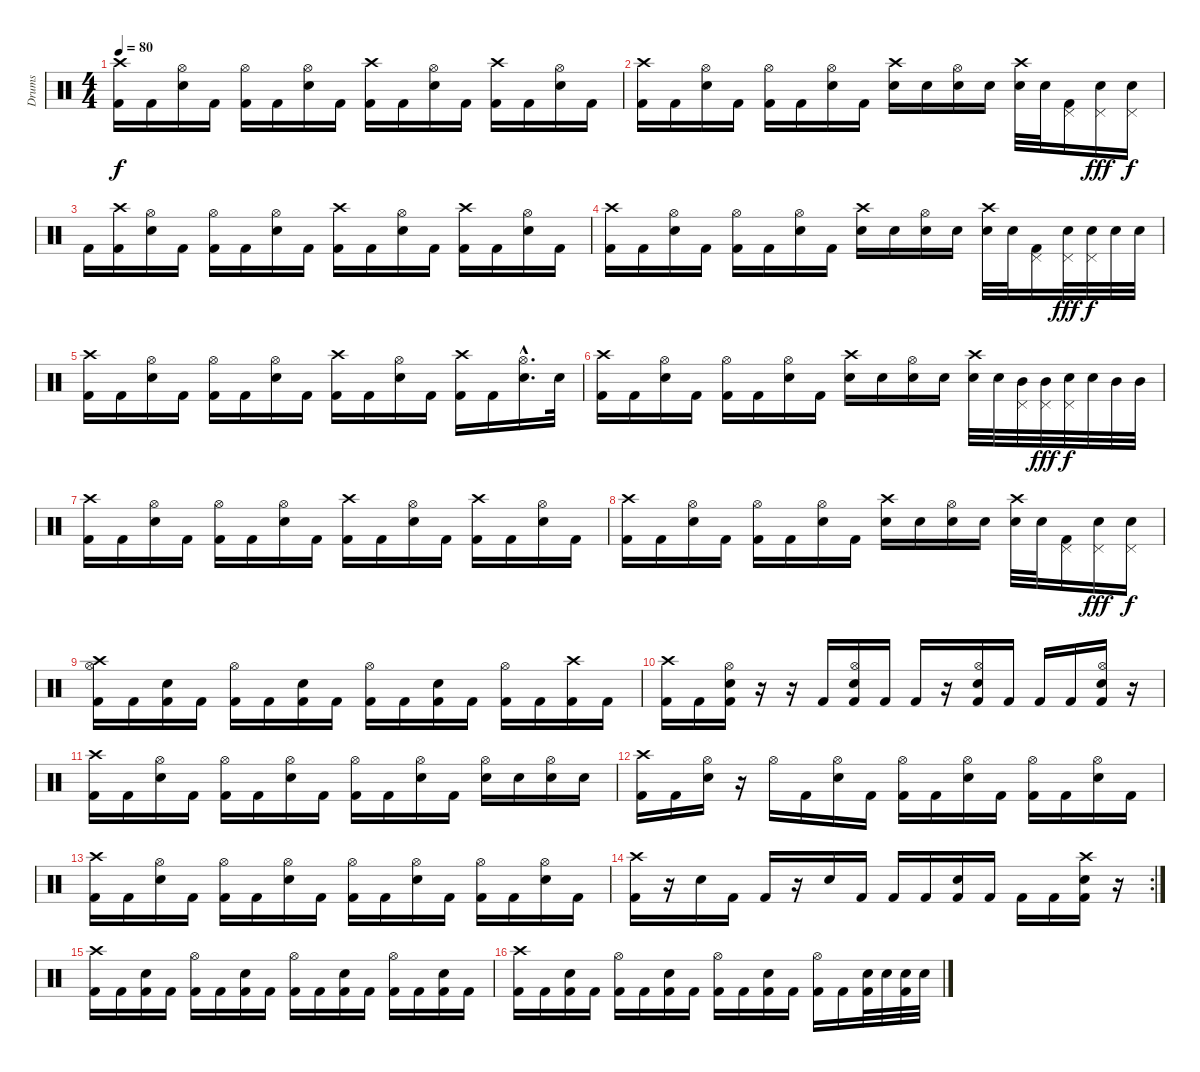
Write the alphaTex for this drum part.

\track ("Drums" "Drums") {instrument percussion}
\staff {score}
\articulation defaults
\ts (4 4)
\tempo 80
\clef neutral
\ks c
("Crash high (hit)" "Kick (hit) 2").16{dy f} "Kick (hit) 2".16 ("Hi-Hat (open)" "Electric Snare (hit)").16 "Kick (hit) 2".16 ("Hi-Hat (open)" "Kick (hit) 2").16 "Kick (hit) 2".16 ("Hi-Hat (open)" "Electric Snare (hit)").16 "Kick (hit) 2".16 ("Crash high (hit)" "Kick (hit) 2").16 "Kick (hit) 2".16 ("Hi-Hat (open)" "Electric Snare (hit)").16 "Kick (hit) 2".16 ("Crash high (hit)" "Kick (hit) 2").16 "Kick (hit) 2".16 ("Hi-Hat (open)" "Electric Snare (hit)").16 "Kick (hit) 2".16 |
("Crash high (hit)" "Kick (hit) 2").16 "Kick (hit) 2".16 ("Hi-Hat (open)" "Electric Snare (hit)").16 "Kick (hit) 2".16 ("Hi-Hat (open)" "Kick (hit) 2").16 "Kick (hit) 2".16 ("Hi-Hat (open)" "Electric Snare (hit)").16 "Kick (hit) 2".16 ("Crash high (hit)" "Electric Snare (hit)").16 "Electric Snare (hit)".16 ("Hi-Hat (open)" "Electric Snare (hit)").16 "Electric Snare (hit)".16 ("Crash high (hit)" "Electric Snare (hit)").32 "Electric Snare (hit)".32 ("Pedal Hi-Hat (hit)" "Kick (hit) 2").16 ("Pedal Hi-Hat (hit)" "Electric Snare (hit)").16{dy fff} ("Pedal Hi-Hat (hit)" "Electric Snare (hit)").16{dy f} |
"Kick (hit) 2".16 ("Crash high (hit)" "Kick (hit) 2").16 ("Hi-Hat (open)" "Electric Snare (hit)").16 "Kick (hit) 2".16 ("Hi-Hat (open)" "Kick (hit) 2").16 "Kick (hit) 2".16 ("Hi-Hat (open)" "Electric Snare (hit)").16 "Kick (hit) 2".16 ("Crash high (hit)" "Kick (hit) 2").16 "Kick (hit) 2".16 ("Hi-Hat (open)" "Electric Snare (hit)").16 "Kick (hit) 2".16 ("Crash high (hit)" "Kick (hit) 2").16 "Kick (hit) 2".16 ("Hi-Hat (open)" "Electric Snare (hit)").16 "Kick (hit) 2".16 |
("Crash high (hit)" "Kick (hit) 2").16 "Kick (hit) 2".16 ("Hi-Hat (open)" "Electric Snare (hit)").16 "Kick (hit) 2".16 ("Hi-Hat (open)" "Kick (hit) 2").16 "Kick (hit) 2".16 ("Hi-Hat (open)" "Electric Snare (hit)").16 "Kick (hit) 2".16 ("Crash high (hit)" "Electric Snare (hit)").16 "Electric Snare (hit)".16 ("Hi-Hat (open)" "Electric Snare (hit)").16 "Electric Snare (hit)".16 ("Crash high (hit)" "Electric Snare (hit)").32 "Electric Snare (hit)".32 ("Pedal Hi-Hat (hit)" "Kick (hit) 2").16 ("Pedal Hi-Hat (hit)" "Electric Snare (hit)").32{dy fff} ("Pedal Hi-Hat (hit)" "Electric Snare (hit)").32{dy f} "Electric Snare (hit)".32 "Electric Snare (hit)".32 |
("Crash high (hit)" "Kick (hit) 2").16 "Kick (hit) 2".16 ("Hi-Hat (open)" "Electric Snare (hit)").16 "Kick (hit) 2".16 ("Hi-Hat (open)" "Kick (hit) 2").16 "Kick (hit) 2".16 ("Hi-Hat (open)" "Electric Snare (hit)").16 "Kick (hit) 2".16 ("Crash high (hit)" "Kick (hit) 2").16 "Kick (hit) 2".16 ("Hi-Hat (open)" "Electric Snare (hit)").16 "Kick (hit) 2".16 ("Crash high (hit)" "Kick (hit) 2").16 "Kick (hit) 2".16 ("Hi-Hat (open)"{hac} "Electric Snare (hit)"{hac}).16{d} "Electric Snare (hit)".32 |
("Crash high (hit)" "Kick (hit) 2").16 "Kick (hit) 2".16 ("Hi-Hat (open)" "Electric Snare (hit)").16 "Kick (hit) 2".16 ("Hi-Hat (open)" "Kick (hit) 2").16 "Kick (hit) 2".16 ("Hi-Hat (open)" "Electric Snare (hit)").16 "Kick (hit) 2".16 ("Crash high (hit)" "Electric Snare (hit)").16 "Electric Snare (hit)".16 ("Hi-Hat (open)" "Electric Snare (hit)").16 "Electric Snare (hit)".16 ("Crash high (hit)" "Electric Snare (hit)").32 "Electric Snare (hit)".32 ("Pedal Hi-Hat (hit)" "Mid Tom (hit)").32 ("Pedal Hi-Hat (hit)" "Mid Tom (hit)").32{dy fff} ("Pedal Hi-Hat (hit)" "Electric Snare (hit)").32{dy f} "Electric Snare (hit)".32 "Mid Tom (hit)".32 "Mid Tom (hit)".32 |
("Crash high (hit)" "Kick (hit) 2").16 "Kick (hit) 2".16 ("Hi-Hat (open)" "Electric Snare (hit)").16 "Kick (hit) 2".16 ("Hi-Hat (open)" "Kick (hit) 2").16 "Kick (hit) 2".16 ("Hi-Hat (open)" "Electric Snare (hit)").16 "Kick (hit) 2".16 ("Crash high (hit)" "Kick (hit) 2").16 "Kick (hit) 2".16 ("Hi-Hat (open)" "Electric Snare (hit)").16 "Kick (hit) 2".16 ("Crash high (hit)" "Kick (hit) 2").16 "Kick (hit) 2".16 ("Hi-Hat (open)" "Electric Snare (hit)").16 "Kick (hit) 2".16 |
("Crash high (hit)" "Kick (hit) 2").16 "Kick (hit) 2".16 ("Hi-Hat (open)" "Electric Snare (hit)").16 "Kick (hit) 2".16 ("Hi-Hat (open)" "Kick (hit) 2").16 "Kick (hit) 2".16 ("Hi-Hat (open)" "Electric Snare (hit)").16 "Kick (hit) 2".16 ("Crash high (hit)" "Electric Snare (hit)").16 "Electric Snare (hit)".16 ("Hi-Hat (open)" "Electric Snare (hit)").16 "Electric Snare (hit)".16 ("Crash high (hit)" "Electric Snare (hit)").32 "Electric Snare (hit)".32 ("Pedal Hi-Hat (hit)" "Kick (hit) 2").16 ("Pedal Hi-Hat (hit)" "Electric Snare (hit)").16{dy fff} ("Pedal Hi-Hat (hit)" "Electric Snare (hit)").16{dy f} |
("Crash high (hit)" "Hi-Hat (open)" "Kick (hit) 2").16 "Kick (hit) 2".16 ("Electric Snare (hit)" "Kick (hit) 2").16 "Kick (hit) 2".16 ("Hi-Hat (open)" "Kick (hit) 2").16 "Kick (hit) 2".16 ("Electric Snare (hit)" "Kick (hit) 2").16 "Kick (hit) 2".16 ("Hi-Hat (open)" "Kick (hit) 2").16 "Kick (hit) 2".16 ("Electric Snare (hit)" "Kick (hit) 2").16 "Kick (hit) 2".16 ("Hi-Hat (open)" "Kick (hit) 2").16 "Kick (hit) 2".16 ("Crash high (hit)" "Kick (hit) 2").16 "Kick (hit) 2".16 |
("Crash high (hit)" "Kick (hit) 2").16 "Kick (hit) 2".16 ("Hi-Hat (open)" "Kick (hit) 2" "Electric Snare (hit)").16 r.16 r.16 "Kick (hit) 2".16 ("Hi-Hat (open)" "Kick (hit) 2" "Electric Snare (hit)").16 "Kick (hit) 2".16 "Kick (hit) 2".16 r.16 ("Hi-Hat (open)" "Kick (hit) 2" "Electric Snare (hit)").16 "Kick (hit) 2".16 "Kick (hit) 2".16 "Kick (hit) 2".16 ("Hi-Hat (open)" "Kick (hit) 2" "Electric Snare (hit)").16 r.16 |
("Crash high (hit)" "Kick (hit) 2").16 "Kick (hit) 2".16 ("Hi-Hat (open)" "Electric Snare (hit)").16 "Kick (hit) 2".16 ("Hi-Hat (open)" "Kick (hit) 2").16 "Kick (hit) 2".16 ("Hi-Hat (open)" "Electric Snare (hit)").16 "Kick (hit) 2".16 ("Hi-Hat (open)" "Kick (hit) 2").16 "Kick (hit) 2".16 ("Hi-Hat (open)" "Electric Snare (hit)").16 "Kick (hit) 2".16 ("Hi-Hat (open)" "Electric Snare (hit)").16 "Electric Snare (hit)".16 ("Hi-Hat (open)" "Electric Snare (hit)").16 "Electric Snare (hit)".16 |
("Crash high (hit)" "Kick (hit) 2").16 "Kick (hit) 2".16 ("Hi-Hat (open)" "Electric Snare (hit)").16 r.16 "Hi-Hat (open)".16 "Kick (hit) 2".16 ("Hi-Hat (open)" "Electric Snare (hit)").16 "Kick (hit) 2".16 ("Hi-Hat (open)" "Kick (hit) 2").16 "Kick (hit) 2".16 ("Hi-Hat (open)" "Electric Snare (hit)").16 "Kick (hit) 2".16 ("Hi-Hat (open)" "Kick (hit) 2").16 "Kick (hit) 2".16 ("Hi-Hat (open)" "Electric Snare (hit)").16 "Kick (hit) 2".16 |
("Crash high (hit)" "Kick (hit) 2").16 "Kick (hit) 2".16 ("Hi-Hat (open)" "Electric Snare (hit)").16 "Kick (hit) 2".16 ("Hi-Hat (open)" "Kick (hit) 2").16 "Kick (hit) 2".16 ("Hi-Hat (open)" "Electric Snare (hit)").16 "Kick (hit) 2".16 ("Hi-Hat (open)" "Kick (hit) 2").16 "Kick (hit) 2".16 ("Hi-Hat (open)" "Electric Snare (hit)").16 "Kick (hit) 2".16 ("Hi-Hat (open)" "Kick (hit) 2").16 "Kick (hit) 2".16 ("Hi-Hat (open)" "Electric Snare (hit)").16 "Kick (hit) 2".16 |
\rc 2
("Crash high (hit)" "Kick (hit) 2").16 r.16 "Electric Snare (hit)".16 "Kick (hit) 2".16 "Kick (hit) 2".16 r.16 "Electric Snare (hit)".16 "Kick (hit) 2".16 "Kick (hit) 2".16 "Kick (hit) 2".16 ("Electric Snare (hit)" "Kick (hit) 2").16 "Kick (hit) 2".16 "Kick (hit) 2".16 "Kick (hit) 2".16 ("Crash high (hit)" "Electric Snare (hit)" "Kick (hit) 2").16 r.16 |
("Crash high (hit)" "Kick (hit) 2").16 "Kick (hit) 2".16 ("Electric Snare (hit)" "Kick (hit) 2").16 "Kick (hit) 2".16 ("Hi-Hat (open)" "Kick (hit) 2").16 "Kick (hit) 2".16 ("Electric Snare (hit)" "Kick (hit) 2").16 "Kick (hit) 2".16 ("Hi-Hat (open)" "Kick (hit) 2").16 "Kick (hit) 2".16 ("Electric Snare (hit)" "Kick (hit) 2").16 "Kick (hit) 2".16 ("Hi-Hat (open)" "Kick (hit) 2").16 "Kick (hit) 2".16 ("Electric Snare (hit)" "Kick (hit) 2").16 "Kick (hit) 2".16 |
("Crash high (hit)" "Kick (hit) 2").16 "Kick (hit) 2".16 ("Electric Snare (hit)" "Kick (hit) 2").16 "Kick (hit) 2".16 ("Hi-Hat (open)" "Kick (hit) 2").16 "Kick (hit) 2".16 ("Electric Snare (hit)" "Kick (hit) 2").16 "Kick (hit) 2".16 ("Hi-Hat (open)" "Kick (hit) 2").16 "Kick (hit) 2".16 ("Electric Snare (hit)" "Kick (hit) 2").16 "Kick (hit) 2".16 ("Hi-Hat (open)" "Kick (hit) 2").16 "Kick (hit) 2".16 ("Electric Snare (hit)" "Kick (hit) 2").32 "Electric Snare (hit)".32 ("Electric Snare (hit)" "Kick (hit) 2").32 "Electric Snare (hit)".32
